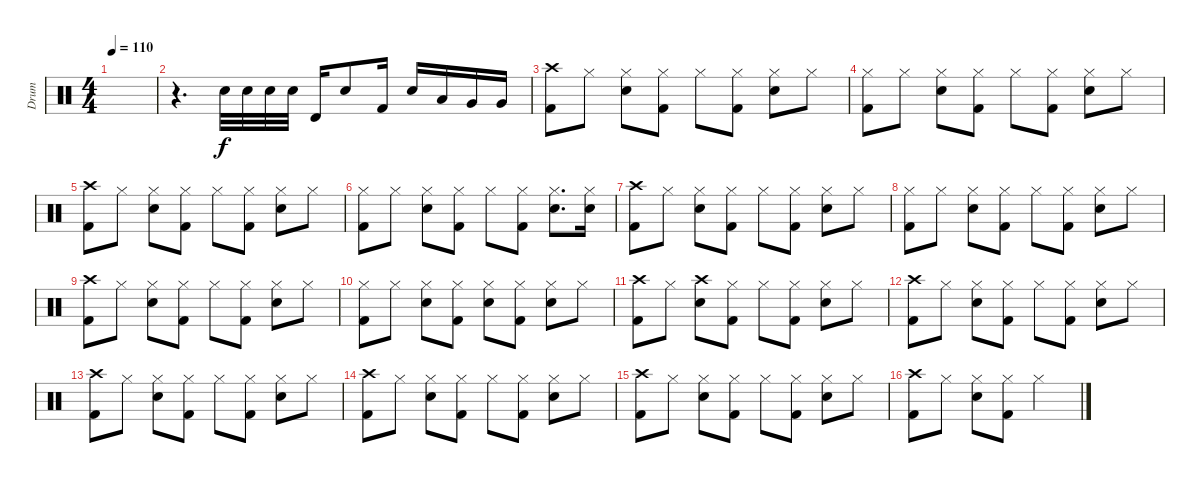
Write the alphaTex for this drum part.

\track ("Drum" "Drum") {instrument percussion}
\staff {score}
\articulation defaults
\ts (4 4)
\tempo 110
\clef neutral
\ks c
|
r.4{d} "Electric Snare (hit)".32{volume 5} "Electric Snare (hit)".32{volume 7} "Electric Snare (hit)".32{volume 9} "Electric Snare (hit)".32{volume 11} "Timbale high (hit)".16{volume 13} "Electric Snare (hit)".8 "Kick (hit) 2".16 "Electric Snare (hit)".16 "Low Tom (hit)".16 "Very Low Tom (hit)".16 "Very Low Tom (hit)".16 |
("Crash high (hit)" "Kick (hit) 2").8 "Hi-Hat (closed)".8 ("Hi-Hat (closed)" "Electric Snare (hit)").8 ("Hi-Hat (closed)" "Kick (hit) 2").8 "Hi-Hat (closed)".8 ("Hi-Hat (closed)" "Kick (hit) 2").8 ("Hi-Hat (closed)" "Electric Snare (hit)").8 "Hi-Hat (closed)".8 |
("Hi-Hat (closed)" "Kick (hit) 2").8 "Hi-Hat (closed)".8 ("Hi-Hat (closed)" "Electric Snare (hit)").8 ("Hi-Hat (closed)" "Kick (hit) 2").8 "Hi-Hat (closed)".8 ("Hi-Hat (closed)" "Kick (hit) 2").8 ("Hi-Hat (closed)" "Electric Snare (hit)").8 "Hi-Hat (closed)".8 |
("Crash high (hit)" "Kick (hit) 2").8 "Hi-Hat (closed)".8 ("Hi-Hat (closed)" "Electric Snare (hit)").8 ("Hi-Hat (closed)" "Kick (hit) 2").8 "Hi-Hat (closed)".8 ("Hi-Hat (closed)" "Kick (hit) 2").8 ("Hi-Hat (closed)" "Electric Snare (hit)").8 "Hi-Hat (closed)".8 |
("Hi-Hat (closed)" "Kick (hit) 2").8 "Hi-Hat (closed)".8 ("Hi-Hat (closed)" "Electric Snare (hit)").8 ("Hi-Hat (closed)" "Kick (hit) 2").8 "Hi-Hat (closed)".8 ("Hi-Hat (closed)" "Kick (hit) 2").8 ("Hi-Hat (closed)" "Electric Snare (hit)").8{d} ("Hi-Hat (closed)" "Electric Snare (hit)").16 |
("Crash high (hit)" "Kick (hit) 2").8 "Hi-Hat (closed)".8 ("Hi-Hat (closed)" "Electric Snare (hit)").8 ("Hi-Hat (closed)" "Kick (hit) 2").8 "Hi-Hat (closed)".8 ("Hi-Hat (closed)" "Kick (hit) 2").8 ("Hi-Hat (closed)" "Electric Snare (hit)").8 "Hi-Hat (closed)".8 |
("Hi-Hat (closed)" "Kick (hit) 2").8 "Hi-Hat (closed)".8 ("Hi-Hat (closed)" "Electric Snare (hit)").8 ("Hi-Hat (closed)" "Kick (hit) 2").8 "Hi-Hat (closed)".8 ("Hi-Hat (closed)" "Kick (hit) 2").8 ("Hi-Hat (closed)" "Electric Snare (hit)").8 "Hi-Hat (closed)".8 |
("Crash high (hit)" "Kick (hit) 2").8 "Hi-Hat (closed)".8 ("Hi-Hat (closed)" "Electric Snare (hit)").8 ("Hi-Hat (closed)" "Kick (hit) 2").8 "Hi-Hat (closed)".8 ("Hi-Hat (closed)" "Kick (hit) 2").8 ("Hi-Hat (closed)" "Electric Snare (hit)").8 "Hi-Hat (closed)".8 |
("Hi-Hat (closed)" "Kick (hit) 2").8 "Hi-Hat (closed)".8 ("Hi-Hat (closed)" "Electric Snare (hit)").8 ("Hi-Hat (closed)" "Kick (hit) 2").8 ("Hi-Hat (closed)" "Electric Snare (hit)").8 ("Hi-Hat (closed)" "Kick (hit) 2").8 ("Hi-Hat (closed)" "Electric Snare (hit)").8 "Hi-Hat (closed)".8 |
("Crash high (hit)" "Kick (hit) 2").8 "Hi-Hat (closed)".8 ("Crash high (hit)" "Electric Snare (hit)").8 ("Hi-Hat (closed)" "Kick (hit) 2").8 "Hi-Hat (closed)".8 ("Hi-Hat (closed)" "Kick (hit) 2").8 ("Hi-Hat (closed)" "Electric Snare (hit)").8 "Hi-Hat (closed)".8 |
("Crash high (hit)" "Kick (hit) 2").8 "Hi-Hat (closed)".8 ("Hi-Hat (closed)" "Electric Snare (hit)").8 ("Hi-Hat (closed)" "Kick (hit) 2").8 "Hi-Hat (closed)".8 ("Hi-Hat (closed)" "Kick (hit) 2").8 ("Hi-Hat (closed)" "Electric Snare (hit)").8 "Hi-Hat (closed)".8 |
("Crash high (hit)" "Kick (hit) 2").8 "Hi-Hat (closed)".8 ("Hi-Hat (closed)" "Electric Snare (hit)").8 ("Hi-Hat (closed)" "Kick (hit) 2").8 "Hi-Hat (closed)".8 ("Hi-Hat (closed)" "Kick (hit) 2").8 ("Hi-Hat (closed)" "Electric Snare (hit)").8 "Hi-Hat (closed)".8 |
("Crash high (hit)" "Kick (hit) 2").8 "Hi-Hat (closed)".8 ("Hi-Hat (closed)" "Electric Snare (hit)").8 ("Hi-Hat (closed)" "Kick (hit) 2").8 "Hi-Hat (closed)".8 ("Hi-Hat (closed)" "Kick (hit) 2").8 ("Hi-Hat (closed)" "Electric Snare (hit)").8 "Hi-Hat (closed)".8 |
("Crash high (hit)" "Kick (hit) 2").8 "Hi-Hat (closed)".8 ("Hi-Hat (closed)" "Electric Snare (hit)").8 ("Hi-Hat (closed)" "Kick (hit) 2").8 "Hi-Hat (closed)".8 ("Hi-Hat (closed)" "Kick (hit) 2").8 ("Hi-Hat (closed)" "Electric Snare (hit)").8 "Hi-Hat (closed)".8 |
("Crash high (hit)" "Kick (hit) 2").8 "Hi-Hat (closed)".8 ("Hi-Hat (closed)" "Electric Snare (hit)").8 ("Hi-Hat (closed)" "Kick (hit) 2").8 "Hi-Hat (closed)".2
